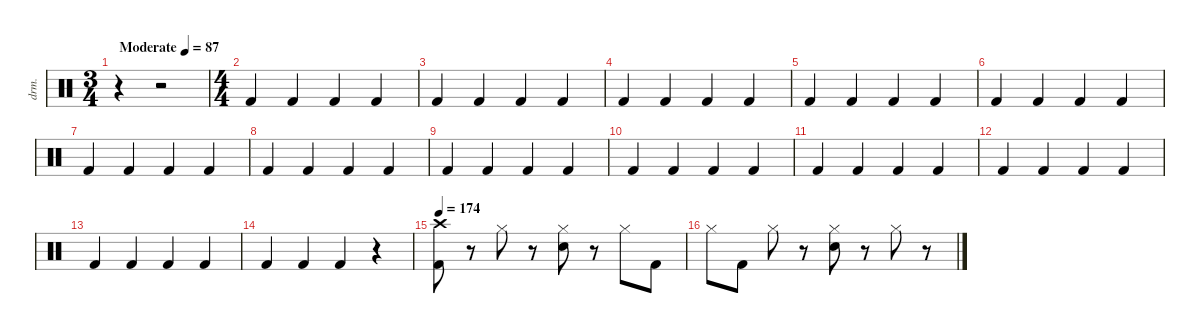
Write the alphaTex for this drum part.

\defaultSystemsLayout 4
\hideDynamics
\bracketExtendMode nobrackets
\track ("Ударные" "drm.") {instrument percussion}
\staff {score}
\articulation defaults
\ts (3 4)
\beaming (8 2 2 2)
\tempo (87 "Moderate")
\clef neutral
\ks c
r.4{dy f} r.2 |
\ts (4 4)
\beaming (8 2 2 2 2)
"Kick (hit) 2".4 "Kick (hit) 2".4 "Kick (hit) 2".4 "Kick (hit) 2".4 |
"Kick (hit) 2".4 "Kick (hit) 2".4 "Kick (hit) 2".4 "Kick (hit) 2".4 |
"Kick (hit) 2".4 "Kick (hit) 2".4 "Kick (hit) 2".4 "Kick (hit) 2".4 |
"Kick (hit) 2".4 "Kick (hit) 2".4 "Kick (hit) 2".4 "Kick (hit) 2".4 |
"Kick (hit) 2".4 "Kick (hit) 2".4 "Kick (hit) 2".4 "Kick (hit) 2".4 |
"Kick (hit) 2".4 "Kick (hit) 2".4 "Kick (hit) 2".4 "Kick (hit) 2".4 |
"Kick (hit) 2".4 "Kick (hit) 2".4 "Kick (hit) 2".4 "Kick (hit) 2".4 |
"Kick (hit) 2".4 "Kick (hit) 2".4 "Kick (hit) 2".4 "Kick (hit) 2".4 |
"Kick (hit) 2".4 "Kick (hit) 2".4 "Kick (hit) 2".4 "Kick (hit) 2".4 |
"Kick (hit) 2".4 "Kick (hit) 2".4 "Kick (hit) 2".4 "Kick (hit) 2".4 |
"Kick (hit) 2".4 "Kick (hit) 2".4 "Kick (hit) 2".4 "Kick (hit) 2".4 |
"Kick (hit) 2".4 "Kick (hit) 2".4 "Kick (hit) 2".4 "Kick (hit) 2".4 |
"Kick (hit) 2".4 "Kick (hit) 2".4 "Kick (hit) 2".4 r.4 |
\tempo 174
("Crash high (hit)" "Kick (hit) 2").8 r.8 "Hi-Hat (closed)".8 r.8 ("Hi-Hat (closed)" "Snare (hit) 2").8 r.8 "Hi-Hat (closed)".8 "Kick (hit) 2".8 |
"Hi-Hat (closed)".8 "Kick (hit) 2".8 "Hi-Hat (closed)".8 r.8 ("Hi-Hat (closed)" "Snare (hit) 2").8 r.8 "Hi-Hat (closed)".8 r.8
